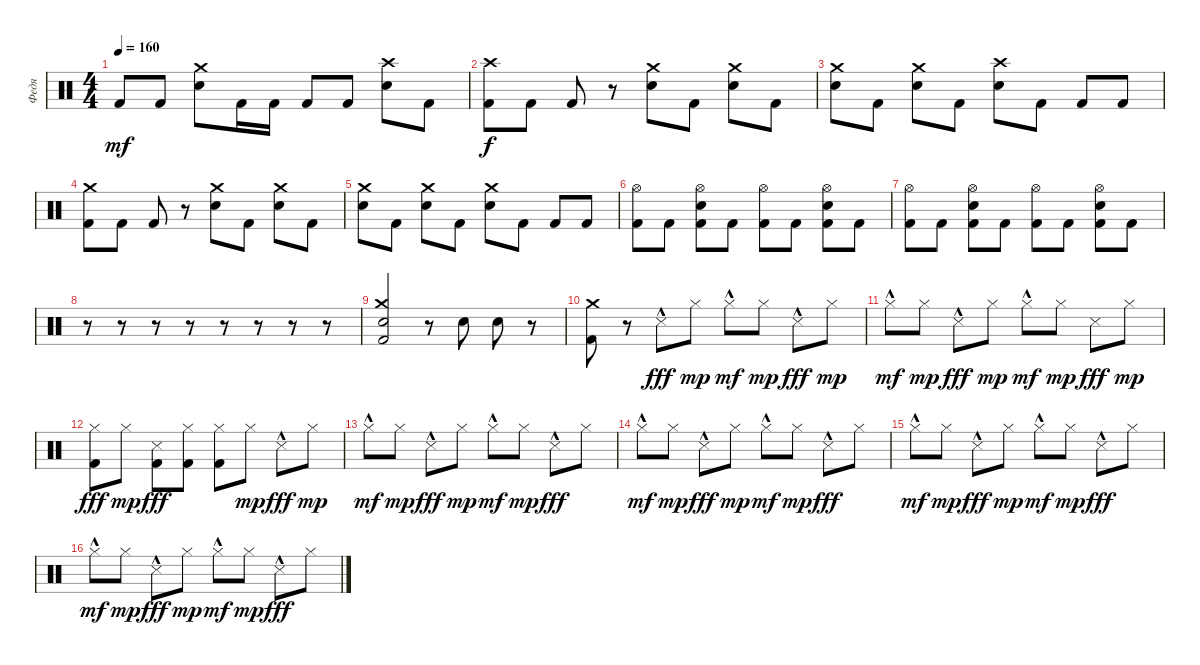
\track ("Федя" "Федя") {instrument percussion}
\staff {score}
\articulation defaults
\ts (4 4)
\tempo 160
\clef neutral
\ks c "Kick (hit) 2".8{dy mf} "Kick (hit) 2".8
("Crash medium (hit)" "Electric Snare (hit)").8 "Kick (hit) 2".16 "Kick (hit) 2".16 "Kick (hit) 2".8 "Kick (hit) 2".8 ("Crash high (hit)" "Electric Snare (hit)").8 "Kick (hit) 2".8 |
("Crash high (hit)" "Kick (hit) 2").8{dy f} "Kick (hit) 2".8 "Kick (hit) 2".8 r.8 ("Crash medium (hit)" "Electric Snare (hit)").8 "Kick (hit) 2".8 ("Crash medium (hit)" "Electric Snare (hit)").8 "Kick (hit) 2".8 |
("Crash medium (hit)" "Electric Snare (hit)").8 "Kick (hit) 2".8 ("Crash medium (hit)" "Electric Snare (hit)").8 "Kick (hit) 2".8 ("Crash high (hit)" "Electric Snare (hit)").8 "Kick (hit) 2".8 "Kick (hit) 2".8 "Kick (hit) 2".8 |
("Crash medium (hit)" "Kick (hit) 2").8 "Kick (hit) 2".8 "Kick (hit) 2".8 r.8 ("Crash medium (hit)" "Electric Snare (hit)").8 "Kick (hit) 2".8 ("Crash medium (hit)" "Electric Snare (hit)").8 "Kick (hit) 2".8 |
("Crash medium (hit)" "Electric Snare (hit)").8 "Kick (hit) 2".8 ("Crash medium (hit)" "Electric Snare (hit)").8 "Kick (hit) 2".8 ("Crash medium (hit)" "Electric Snare (hit)").8 "Kick (hit) 2".8 "Kick (hit) 2".8 "Kick (hit) 2".8 |
("Hi-Hat (open)" "Kick (hit) 2").8 "Kick (hit) 2".8 ("Hi-Hat (open)" "Electric Snare (hit)" "Kick (hit) 2").8 "Kick (hit) 2".8 ("Hi-Hat (open)" "Kick (hit) 2").8 "Kick (hit) 2".8 ("Hi-Hat (open)" "Electric Snare (hit)" "Kick (hit) 2").8 "Kick (hit) 2".8 |
("Hi-Hat (open)" "Kick (hit) 2").8 "Kick (hit) 2".8 ("Hi-Hat (open)" "Electric Snare (hit)" "Kick (hit) 2").8 "Kick (hit) 2".8 ("Hi-Hat (open)" "Kick (hit) 2").8 "Kick (hit) 2".8 ("Hi-Hat (open)" "Electric Snare (hit)" "Kick (hit) 2").8 "Kick (hit) 2".8 |
r.8 r.8 r.8 r.8 r.8 r.8 r.8 r.8 |
("Crash medium (hit)" "Electric Snare (hit)" "Kick (hit) 2").2 r.8 "Electric Snare (hit)".8 "Electric Snare (hit)".8 r.8 |
("Crash medium (hit)" "Kick (hit) 2").8 r.8 "Snare (side stick) 3"{hac}.8{dy fff} "Hi-Hat (closed)".8{dy mp} "Hi-Hat (closed)"{hac}.8{dy mf} "Hi-Hat (closed)".8{dy mp} "Snare (side stick) 3"{hac}.8{dy fff} "Hi-Hat (closed)".8{dy mp} |
"Hi-Hat (closed)"{hac}.8{dy mf} "Hi-Hat (closed)".8{dy mp} "Snare (side stick) 3"{hac}.8{dy fff} "Hi-Hat (closed)".8{dy mp} "Hi-Hat (closed)"{hac}.8{dy mf} "Hi-Hat (closed)".8{dy mp} "Snare (side stick) 3".8{dy fff} "Hi-Hat (closed)".8{dy mp} |
("Hi-Hat (closed)" "Kick (hit) 2").8{dy fff} "Hi-Hat (closed)".8{dy mp} ("Snare (side stick) 3" "Kick (hit) 2").8{dy fff} ("Hi-Hat (closed)" "Kick (hit) 2").8 ("Hi-Hat (closed)" "Kick (hit) 2").8 "Hi-Hat (closed)".8{dy mp} "Snare (side stick) 3"{hac}.8{dy fff} "Hi-Hat (closed)".8{dy mp} |
"Hi-Hat (closed)"{hac}.8{dy mf} "Hi-Hat (closed)".8{dy mp} "Snare (side stick) 3"{hac}.8{dy fff} "Hi-Hat (closed)".8{dy mp} "Hi-Hat (closed)"{hac}.8{dy mf} "Hi-Hat (closed)".8{dy mp} "Snare (side stick) 3"{hac}.8{dy fff} "Hi-Hat (closed)".8 |
"Hi-Hat (closed)"{hac}.8{dy mf} "Hi-Hat (closed)".8{dy mp} "Snare (side stick) 3"{hac}.8{dy fff} "Hi-Hat (closed)".8{dy mp} "Hi-Hat (closed)"{hac}.8{dy mf} "Hi-Hat (closed)".8{dy mp} "Snare (side stick) 3"{hac}.8{dy fff} "Hi-Hat (closed)".8 |
"Hi-Hat (closed)"{hac}.8{dy mf} "Hi-Hat (closed)".8{dy mp} "Snare (side stick) 3"{hac}.8{dy fff} "Hi-Hat (closed)".8{dy mp} "Hi-Hat (closed)"{hac}.8{dy mf} "Hi-Hat (closed)".8{dy mp} "Snare (side stick) 3"{hac}.8{dy fff} "Hi-Hat (closed)".8 |
"Hi-Hat (closed)"{hac}.8{dy mf} "Hi-Hat (closed)".8{dy mp} "Snare (side stick) 3"{hac}.8{dy fff} "Hi-Hat (closed)".8{dy mp} "Hi-Hat (closed)"{hac}.8{dy mf} "Hi-Hat (closed)".8{dy mp} "Snare (side stick) 3"{hac}.8{dy fff} "Hi-Hat (closed)".8
